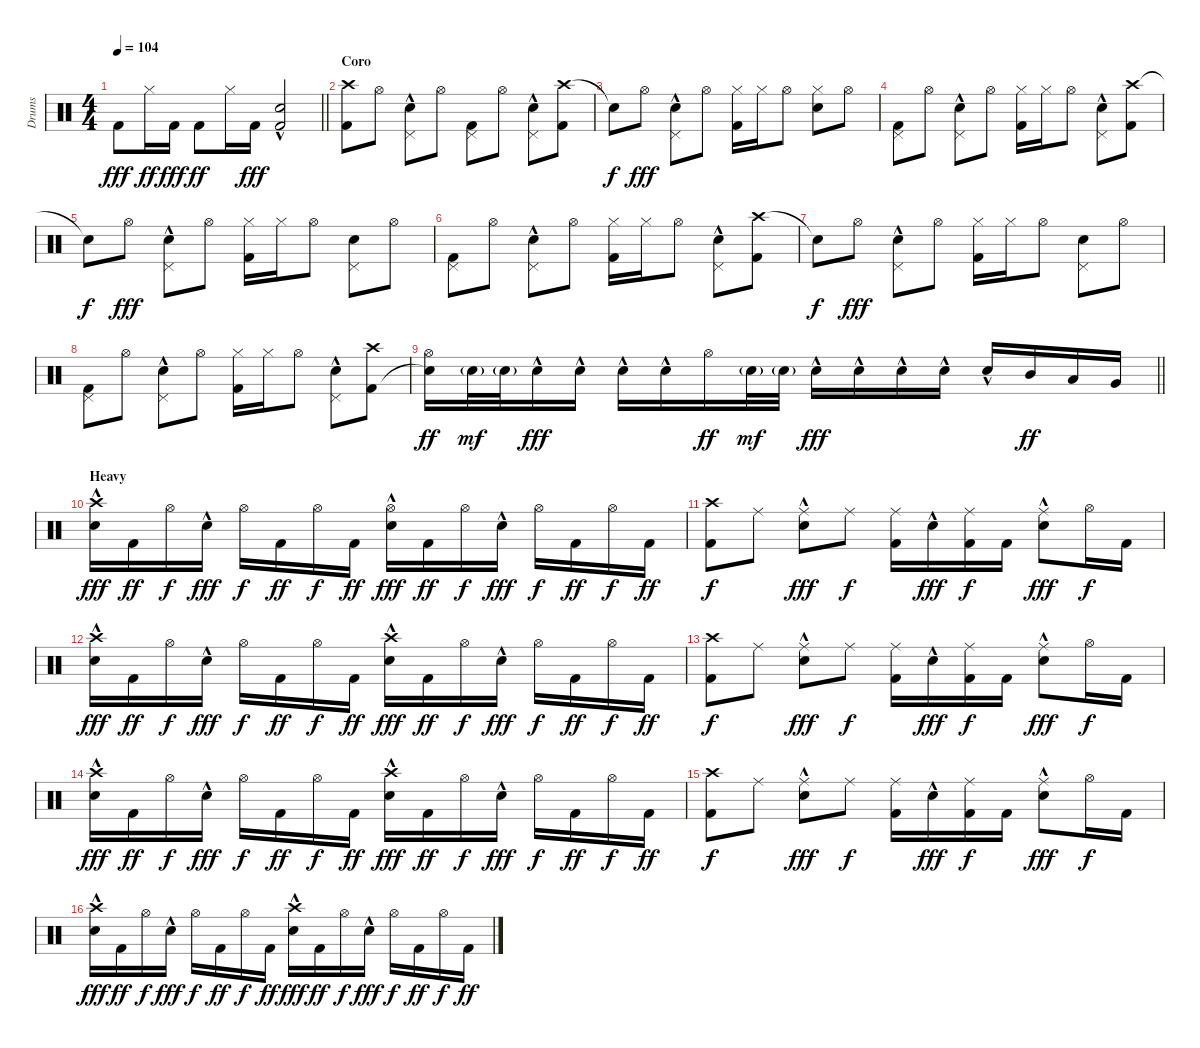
\track ("Drums" "Drums") {instrument percussion}
\staff {score}
\articulation defaults
\ts (4 4)
\tempo 104
\clef neutral
\barLineRight lightlight
\ks c "Kick (hit) 2".8{dy fff} "Hi-Hat (closed)".16{dy ff} "Kick (hit) 2".16{dy fff} "Kick (hit) 2".8{dy ff} "Hi-Hat (closed)".16 "Kick (hit) 2".16{dy fff}
("Electric Snare (hit)"{hac} "Kick (hit) 2").2 |
\section ("" "Coro")
("Crash high (hit)" "Kick (hit) 2").8 "Hi-Hat (open)".8 ("Pedal Hi-Hat (hit)" "Electric Snare (hit)"{hac}).8 "Hi-Hat (open)".8 ("Pedal Hi-Hat (hit)" "Kick (hit) 2").8 "Hi-Hat (open)".8 ("Pedal Hi-Hat (hit)" "Electric Snare (hit)"{hac}).8 ("Crash high (hit)" "Kick (hit) 2").8 |
"Snare (hit)"{t}.8{dy f} "Hi-Hat (open)".8{dy fff} ("Pedal Hi-Hat (hit)" "Electric Snare (hit)"{hac}).8 "Hi-Hat (open)".8 ("Hi-Hat (closed)" "Kick (hit) 2").16 "Hi-Hat (closed)".16 "Hi-Hat (open)".8 ("Hi-Hat (closed)" "Electric Snare (hit)").8 "Hi-Hat (open)".8 |
("Pedal Hi-Hat (hit)" "Kick (hit) 2").8 "Hi-Hat (open)".8 ("Pedal Hi-Hat (hit)" "Electric Snare (hit)"{hac}).8 "Hi-Hat (open)".8 ("Hi-Hat (closed)" "Kick (hit) 2").16 "Hi-Hat (closed)".16 "Hi-Hat (open)".8 ("Pedal Hi-Hat (hit)" "Electric Snare (hit)"{hac}).8 ("Crash high (hit)" "Kick (hit) 2").8 |
"Snare (hit)"{t}.8{dy f} "Hi-Hat (open)".8{dy fff} ("Pedal Hi-Hat (hit)" "Electric Snare (hit)"{hac}).8 "Hi-Hat (open)".8 ("Hi-Hat (closed)" "Kick (hit) 2").16 "Hi-Hat (closed)".16 "Hi-Hat (open)".8 ("Pedal Hi-Hat (hit)" "Electric Snare (hit)").8 "Hi-Hat (open)".8 |
("Pedal Hi-Hat (hit)" "Kick (hit) 2").8 "Hi-Hat (open)".8 ("Pedal Hi-Hat (hit)" "Electric Snare (hit)"{hac}).8 "Hi-Hat (open)".8 ("Hi-Hat (closed)" "Kick (hit) 2").16 "Hi-Hat (closed)".16 "Hi-Hat (open)".8 ("Pedal Hi-Hat (hit)" "Electric Snare (hit)"{hac}).8 ("Crash high (hit)" "Kick (hit) 2").8 |
"Snare (hit)"{t}.8{dy f} "Hi-Hat (open)".8{dy fff} ("Pedal Hi-Hat (hit)" "Electric Snare (hit)"{hac}).8 "Hi-Hat (open)".8 ("Hi-Hat (closed)" "Kick (hit) 2").16 "Hi-Hat (closed)".16 "Hi-Hat (open)".8 ("Pedal Hi-Hat (hit)" "Electric Snare (hit)").8 "Hi-Hat (open)".8 |
("Pedal Hi-Hat (hit)" "Kick (hit) 2").8 "Hi-Hat (open)".8 ("Pedal Hi-Hat (hit)" "Electric Snare (hit)"{hac}).8 "Hi-Hat (open)".8 ("Hi-Hat (closed)" "Kick (hit) 2").16 "Hi-Hat (closed)".16 "Hi-Hat (open)".8 ("Pedal Hi-Hat (hit)" "Electric Snare (hit)"{hac}).8 ("Crash high (hit)" "Kick (hit) 2").8 |
\barLineRight lightlight
("Hi-Hat (open)" "Snare (hit)"{t}).16{dy ff} "Electric Snare (hit)"{g}.32{dy mf} "Electric Snare (hit)"{g}.32 "Electric Snare (hit)"{hac}.16{dy fff} "Electric Snare (hit)"{hac}.16 "Electric Snare (hit)"{hac}.16 "Electric Snare (hit)"{hac}.16 "Hi-Hat (open)".16{dy ff} "Electric Snare (hit)"{g}.32{dy mf} "Electric Snare (hit)"{g}.32 "Electric Snare (hit)"{hac}.16{dy fff} "Electric Snare (hit)"{hac}.16 "Electric Snare (hit)"{hac}.16 "Electric Snare (hit)"{hac}.16 "Electric Snare (hit)"{hac}.16 "Mid Tom (hit)".16{dy ff} "Low Tom (hit)".16 "Very Low Tom (hit)".16 |
\section ("" "Heavy")
("Crash high (hit)" "Electric Snare (hit)"{hac}).16{dy fff} "Kick (hit) 2".16{dy ff} "Hi-Hat (open)".16{dy f} "Electric Snare (hit)"{hac}.16{dy fff} "Hi-Hat (open)".16{dy f} "Kick (hit) 2".16{dy ff} "Hi-Hat (open)".16{dy f} "Kick (hit) 2".16{dy ff} ("Hi-Hat (open)" "Electric Snare (hit)"{hac}).16{dy fff} "Kick (hit) 2".16{dy ff} "Hi-Hat (open)".16{dy f} "Electric Snare (hit)"{hac}.16{dy fff} "Hi-Hat (open)".16{dy f} "Kick (hit) 2".16{dy ff} "Hi-Hat (open)".16{dy f} "Kick (hit) 2".16{dy ff} |
("Crash high (hit)" "Kick (hit) 2").8{dy f} "Ride (middle)".8 ("Ride (middle)" "Electric Snare (hit)"{hac}).8{dy fff} "Ride (middle)".8{dy f} ("Ride (middle)" "Kick (hit) 2").16 "Electric Snare (hit)"{hac}.16{dy fff} ("Ride (middle)" "Kick (hit) 2").16{dy f} "Kick (hit) 2".16 ("Ride (middle)" "Electric Snare (hit)"{hac}).8{dy fff} "Hi-Hat (open)".16{dy f} "Kick (hit) 2".16 |
("Crash high (hit)" "Electric Snare (hit)"{hac}).16{dy fff} "Kick (hit) 2".16{dy ff} "Hi-Hat (open)".16{dy f} "Electric Snare (hit)"{hac}.16{dy fff} "Hi-Hat (open)".16{dy f} "Kick (hit) 2".16{dy ff} "Hi-Hat (open)".16{dy f} "Kick (hit) 2".16{dy ff} ("Crash high (hit)" "Electric Snare (hit)"{hac}).16{dy fff} "Kick (hit) 2".16{dy ff} "Hi-Hat (open)".16{dy f} "Electric Snare (hit)"{hac}.16{dy fff} "Hi-Hat (open)".16{dy f} "Kick (hit) 2".16{dy ff} "Hi-Hat (open)".16{dy f} "Kick (hit) 2".16{dy ff} |
("Crash high (hit)" "Kick (hit) 2").8{dy f} "Ride (middle)".8 ("Ride (middle)" "Electric Snare (hit)"{hac}).8{dy fff} "Ride (middle)".8{dy f} ("Ride (middle)" "Kick (hit) 2").16 "Electric Snare (hit)"{hac}.16{dy fff} ("Ride (middle)" "Kick (hit) 2").16{dy f} "Kick (hit) 2".16 ("Ride (middle)" "Electric Snare (hit)"{hac}).8{dy fff} "Hi-Hat (open)".16{dy f} "Kick (hit) 2".16 |
("Crash high (hit)" "Electric Snare (hit)"{hac}).16{dy fff} "Kick (hit) 2".16{dy ff} "Hi-Hat (open)".16{dy f} "Electric Snare (hit)"{hac}.16{dy fff} "Hi-Hat (open)".16{dy f} "Kick (hit) 2".16{dy ff} "Hi-Hat (open)".16{dy f} "Kick (hit) 2".16{dy ff} ("Crash high (hit)" "Electric Snare (hit)"{hac}).16{dy fff} "Kick (hit) 2".16{dy ff} "Hi-Hat (open)".16{dy f} "Electric Snare (hit)"{hac}.16{dy fff} "Hi-Hat (open)".16{dy f} "Kick (hit) 2".16{dy ff} "Hi-Hat (open)".16{dy f} "Kick (hit) 2".16{dy ff} |
("Crash high (hit)" "Kick (hit) 2").8{dy f} "Ride (middle)".8 ("Ride (middle)" "Electric Snare (hit)"{hac}).8{dy fff} "Ride (middle)".8{dy f} ("Ride (middle)" "Kick (hit) 2").16 "Electric Snare (hit)"{hac}.16{dy fff} ("Ride (middle)" "Kick (hit) 2").16{dy f} "Kick (hit) 2".16 ("Ride (middle)" "Electric Snare (hit)"{hac}).8{dy fff} "Hi-Hat (open)".16{dy f} "Kick (hit) 2".16 |
("Crash high (hit)" "Electric Snare (hit)"{hac}).16{dy fff} "Kick (hit) 2".16{dy ff} "Hi-Hat (open)".16{dy f} "Electric Snare (hit)"{hac}.16{dy fff} "Hi-Hat (open)".16{dy f} "Kick (hit) 2".16{dy ff} "Hi-Hat (open)".16{dy f} "Kick (hit) 2".16{dy ff} ("Crash high (hit)" "Electric Snare (hit)"{hac}).16{dy fff} "Kick (hit) 2".16{dy ff} "Hi-Hat (open)".16{dy f} "Electric Snare (hit)"{hac}.16{dy fff} "Hi-Hat (open)".16{dy f} "Kick (hit) 2".16{dy ff} "Hi-Hat (open)".16{dy f} "Kick (hit) 2".16{dy ff}
